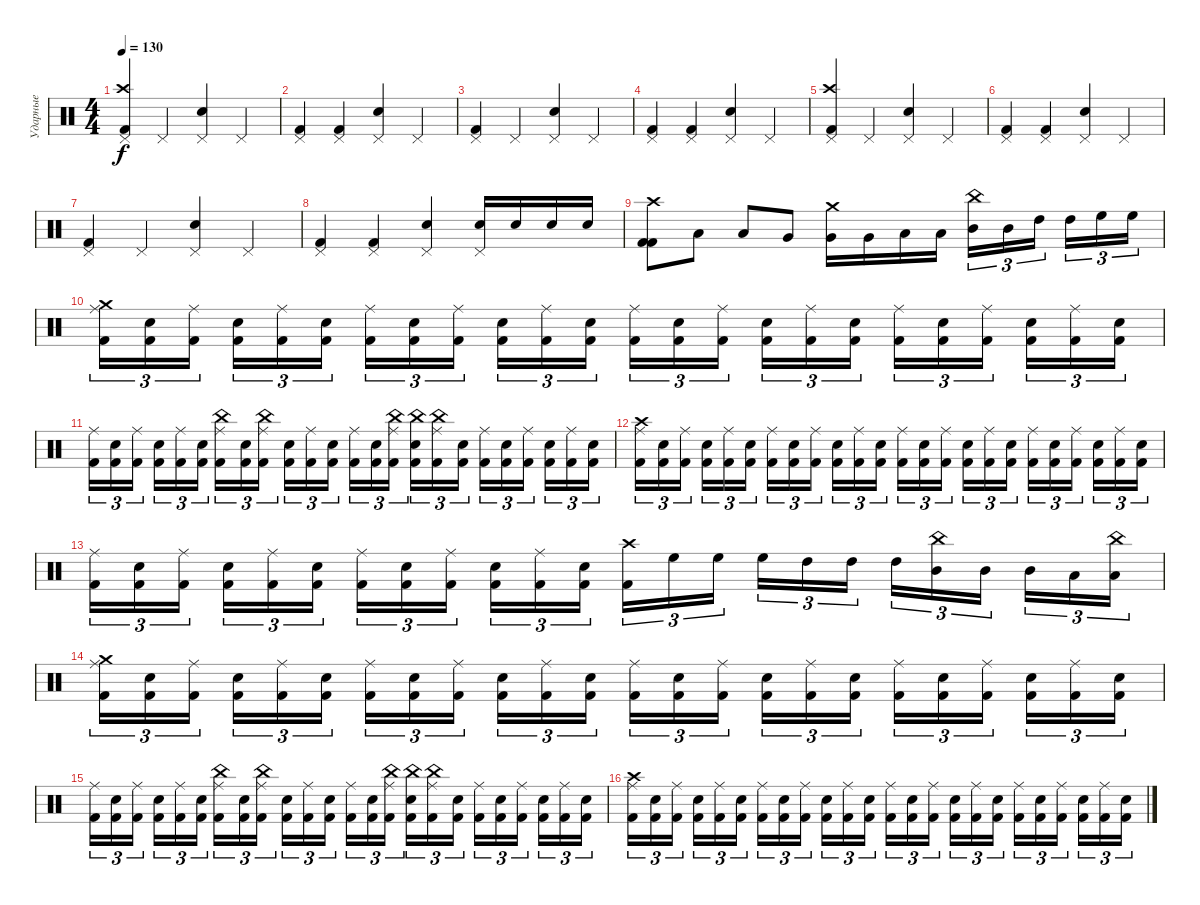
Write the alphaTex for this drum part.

\track ("Ударные" "Ударные") {instrument percussion}
\staff {score}
\articulation defaults
\ts (4 4)
\tempo 130
\clef neutral
\ks c
("Pedal Hi-Hat (hit)" "Crash high (hit)" "Kick (hit) 2").4{dy f} "Pedal Hi-Hat (hit)".4 ("Pedal Hi-Hat (hit)" "Electric Snare (hit)").4 "Pedal Hi-Hat (hit)".4 |
("Pedal Hi-Hat (hit)" "Kick (hit) 2").4 ("Pedal Hi-Hat (hit)" "Kick (hit) 2").4 ("Pedal Hi-Hat (hit)" "Electric Snare (hit)").4 "Pedal Hi-Hat (hit)".4 |
("Pedal Hi-Hat (hit)" "Kick (hit) 2").4 "Pedal Hi-Hat (hit)".4 ("Pedal Hi-Hat (hit)" "Electric Snare (hit)").4 "Pedal Hi-Hat (hit)".4 |
("Pedal Hi-Hat (hit)" "Kick (hit) 2").4 ("Pedal Hi-Hat (hit)" "Kick (hit) 2").4 ("Pedal Hi-Hat (hit)" "Electric Snare (hit)").4 "Pedal Hi-Hat (hit)".4 |
("Pedal Hi-Hat (hit)" "Crash high (hit)" "Kick (hit) 2").4 "Pedal Hi-Hat (hit)".4 ("Pedal Hi-Hat (hit)" "Electric Snare (hit)").4 "Pedal Hi-Hat (hit)".4 |
("Pedal Hi-Hat (hit)" "Kick (hit) 2").4 ("Pedal Hi-Hat (hit)" "Kick (hit) 2").4 ("Pedal Hi-Hat (hit)" "Electric Snare (hit)").4 "Pedal Hi-Hat (hit)".4 |
("Pedal Hi-Hat (hit)" "Kick (hit) 2").4 "Pedal Hi-Hat (hit)".4 ("Pedal Hi-Hat (hit)" "Electric Snare (hit)").4 "Pedal Hi-Hat (hit)".4 |
("Pedal Hi-Hat (hit)" "Kick (hit) 2").4 ("Pedal Hi-Hat (hit)" "Kick (hit) 2").4 ("Pedal Hi-Hat (hit)" "Electric Snare (hit)").4 ("Pedal Hi-Hat (hit)" "Electric Snare (hit)").16 "Electric Snare (hit)".16 "Electric Snare (hit)".16 "Electric Snare (hit)".16 |
("Crash high (hit)" "Kick (hit) 2" "Kick (hit) 2").8 "Low Floor Tom (hit)".8 "Low Floor Tom (hit)".8 "Very Low Tom (hit)".8 ("Very Low Tom (hit)" "Crash medium (hit)").16 "Very Low Tom (hit)".16 "Low Tom (hit)".16 "Low Tom (hit)".16 ("Mid Tom (hit)" "China (hit)").16{tu (3 2)} "Mid Tom (hit)".16{tu (3 2)} "High Tom (hit)".16{tu (3 2)} "High Tom (hit)".16{tu (3 2)} "High Floor Tom (hit)".16{tu (3 2)} "High Floor Tom (hit)".16{tu (3 2)} |
("Ride (middle)" "Crash medium (hit)" "Kick (hit) 2").16{tu (3 2)} ("Electric Snare (hit)" "Kick (hit) 2").16{tu (3 2)} ("Ride (middle)" "Kick (hit) 2").16{tu (3 2)} ("Electric Snare (hit)" "Kick (hit) 2").16{tu (3 2)} ("Ride (middle)" "Kick (hit) 2").16{tu (3 2)} ("Electric Snare (hit)" "Kick (hit) 2").16{tu (3 2)} ("Ride (middle)" "Kick (hit) 2").16{tu (3 2)} ("Electric Snare (hit)" "Kick (hit) 2").16{tu (3 2)} ("Ride (middle)" "Kick (hit) 2").16{tu (3 2)} ("Electric Snare (hit)" "Kick (hit) 2").16{tu (3 2)} ("Ride (middle)" "Kick (hit) 2").16{tu (3 2)} ("Electric Snare (hit)" "Kick (hit) 2").16{tu (3 2)} ("Ride (middle)" "Kick (hit) 2").16{tu (3 2)} ("Electric Snare (hit)" "Kick (hit) 2").16{tu (3 2)} ("Ride (middle)" "Kick (hit) 2").16{tu (3 2)} ("Electric Snare (hit)" "Kick (hit) 2").16{tu (3 2)} ("Ride (middle)" "Kick (hit) 2").16{tu (3 2)} ("Electric Snare (hit)" "Kick (hit) 2").16{tu (3 2)} ("Ride (middle)" "Kick (hit) 2").16{tu (3 2)} ("Electric Snare (hit)" "Kick (hit) 2").16{tu (3 2)} ("Ride (middle)" "Kick (hit) 2").16{tu (3 2)} ("Electric Snare (hit)" "Kick (hit) 2").16{tu (3 2)} ("Ride (middle)" "Kick (hit) 2").16{tu (3 2)} ("Electric Snare (hit)" "Kick (hit) 2").16{tu (3 2)} |
("Ride (middle)" "Kick (hit) 2").16{tu (3 2)} ("Electric Snare (hit)" "Kick (hit) 2").16{tu (3 2)} ("Ride (middle)" "Kick (hit) 2").16{tu (3 2)} ("Electric Snare (hit)" "Kick (hit) 2").16{tu (3 2)} ("Ride (middle)" "Kick (hit) 2").16{tu (3 2)} ("Electric Snare (hit)" "Kick (hit) 2").16{tu (3 2)} ("Ride (middle)" "China (hit)" "Kick (hit) 2").16{tu (3 2)} ("Electric Snare (hit)" "Kick (hit) 2").16{tu (3 2)} ("Ride (middle)" "China (hit)" "Kick (hit) 2").16{tu (3 2)} ("Electric Snare (hit)" "Kick (hit) 2").16{tu (3 2)} ("Ride (middle)" "Kick (hit) 2").16{tu (3 2)} ("Electric Snare (hit)" "Kick (hit) 2").16{tu (3 2)} ("Ride (middle)" "Kick (hit) 2").16{tu (3 2)} ("Electric Snare (hit)" "Kick (hit) 2").16{tu (3 2)} ("Ride (middle)" "China (hit)" "Kick (hit) 2").16{tu (3 2)} ("China (hit)" "Electric Snare (hit)" "Kick (hit) 2").16{tu (3 2)} ("Ride (middle)" "China (hit)" "Kick (hit) 2").16{tu (3 2)} ("Electric Snare (hit)" "Kick (hit) 2").16{tu (3 2)} ("Ride (middle)" "Kick (hit) 2").16{tu (3 2)} ("Electric Snare (hit)" "Kick (hit) 2").16{tu (3 2)} ("Ride (middle)" "Kick (hit) 2").16{tu (3 2)} ("Electric Snare (hit)" "Kick (hit) 2").16{tu (3 2)} ("Ride (middle)" "Kick (hit) 2").16{tu (3 2)} ("Electric Snare (hit)" "Kick (hit) 2").16{tu (3 2)} |
("Ride (middle)" "Crash high (hit)" "Kick (hit) 2").16{tu (3 2)} ("Electric Snare (hit)" "Kick (hit) 2").16{tu (3 2)} ("Ride (middle)" "Kick (hit) 2").16{tu (3 2)} ("Electric Snare (hit)" "Kick (hit) 2").16{tu (3 2)} ("Ride (middle)" "Kick (hit) 2").16{tu (3 2)} ("Electric Snare (hit)" "Kick (hit) 2").16{tu (3 2)} ("Ride (middle)" "Kick (hit) 2").16{tu (3 2)} ("Electric Snare (hit)" "Kick (hit) 2").16{tu (3 2)} ("Ride (middle)" "Kick (hit) 2").16{tu (3 2)} ("Electric Snare (hit)" "Kick (hit) 2").16{tu (3 2)} ("Ride (middle)" "Kick (hit) 2").16{tu (3 2)} ("Electric Snare (hit)" "Kick (hit) 2").16{tu (3 2)} ("Ride (middle)" "Kick (hit) 2").16{tu (3 2)} ("Electric Snare (hit)" "Kick (hit) 2").16{tu (3 2)} ("Ride (middle)" "Kick (hit) 2").16{tu (3 2)} ("Electric Snare (hit)" "Kick (hit) 2").16{tu (3 2)} ("Ride (middle)" "Kick (hit) 2").16{tu (3 2)} ("Electric Snare (hit)" "Kick (hit) 2").16{tu (3 2)} ("Ride (middle)" "Kick (hit) 2").16{tu (3 2)} ("Electric Snare (hit)" "Kick (hit) 2").16{tu (3 2)} ("Ride (middle)" "Kick (hit) 2").16{tu (3 2)} ("Electric Snare (hit)" "Kick (hit) 2").16{tu (3 2)} ("Ride (middle)" "Kick (hit) 2").16{tu (3 2)} ("Electric Snare (hit)" "Kick (hit) 2").16{tu (3 2)} |
("Ride (middle)" "Kick (hit) 2").16{tu (3 2)} ("Electric Snare (hit)" "Kick (hit) 2").16{tu (3 2)} ("Ride (middle)" "Kick (hit) 2").16{tu (3 2)} ("Electric Snare (hit)" "Kick (hit) 2").16{tu (3 2)} ("Ride (middle)" "Kick (hit) 2").16{tu (3 2)} ("Electric Snare (hit)" "Kick (hit) 2").16{tu (3 2)} ("Ride (middle)" "Kick (hit) 2").16{tu (3 2)} ("Electric Snare (hit)" "Kick (hit) 2").16{tu (3 2)} ("Ride (middle)" "Kick (hit) 2").16{tu (3 2)} ("Electric Snare (hit)" "Kick (hit) 2").16{tu (3 2)} ("Ride (middle)" "Kick (hit) 2").16{tu (3 2)} ("Electric Snare (hit)" "Kick (hit) 2").16{tu (3 2)} ("Crash high (hit)" "Kick (hit) 2").16{tu (3 2)} "High Floor Tom (hit)".16{tu (3 2)} "High Floor Tom (hit)".16{tu (3 2)} "High Floor Tom (hit)".16{tu (3 2)} "High Tom (hit)".16{tu (3 2)} "High Tom (hit)".16{tu (3 2)} "High Tom (hit)".16{tu (3 2)} ("Mid Tom (hit)" "China (hit)").16{tu (3 2)} "Mid Tom (hit)".16{tu (3 2)} "Mid Tom (hit)".16{tu (3 2)} "Low Tom (hit)".16{tu (3 2)} ("Low Tom (hit)" "China (hit)").16{tu (3 2)} |
("Ride (middle)" "Crash medium (hit)" "Kick (hit) 2").16{tu (3 2)} ("Electric Snare (hit)" "Kick (hit) 2").16{tu (3 2)} ("Ride (middle)" "Kick (hit) 2").16{tu (3 2)} ("Electric Snare (hit)" "Kick (hit) 2").16{tu (3 2)} ("Ride (middle)" "Kick (hit) 2").16{tu (3 2)} ("Electric Snare (hit)" "Kick (hit) 2").16{tu (3 2)} ("Ride (middle)" "Kick (hit) 2").16{tu (3 2)} ("Electric Snare (hit)" "Kick (hit) 2").16{tu (3 2)} ("Ride (middle)" "Kick (hit) 2").16{tu (3 2)} ("Electric Snare (hit)" "Kick (hit) 2").16{tu (3 2)} ("Ride (middle)" "Kick (hit) 2").16{tu (3 2)} ("Electric Snare (hit)" "Kick (hit) 2").16{tu (3 2)} ("Ride (middle)" "Kick (hit) 2").16{tu (3 2)} ("Electric Snare (hit)" "Kick (hit) 2").16{tu (3 2)} ("Ride (middle)" "Kick (hit) 2").16{tu (3 2)} ("Electric Snare (hit)" "Kick (hit) 2").16{tu (3 2)} ("Ride (middle)" "Kick (hit) 2").16{tu (3 2)} ("Electric Snare (hit)" "Kick (hit) 2").16{tu (3 2)} ("Ride (middle)" "Kick (hit) 2").16{tu (3 2)} ("Electric Snare (hit)" "Kick (hit) 2").16{tu (3 2)} ("Ride (middle)" "Kick (hit) 2").16{tu (3 2)} ("Electric Snare (hit)" "Kick (hit) 2").16{tu (3 2)} ("Ride (middle)" "Kick (hit) 2").16{tu (3 2)} ("Electric Snare (hit)" "Kick (hit) 2").16{tu (3 2)} |
("Ride (middle)" "Kick (hit) 2").16{tu (3 2)} ("Electric Snare (hit)" "Kick (hit) 2").16{tu (3 2)} ("Ride (middle)" "Kick (hit) 2").16{tu (3 2)} ("Electric Snare (hit)" "Kick (hit) 2").16{tu (3 2)} ("Ride (middle)" "Kick (hit) 2").16{tu (3 2)} ("Electric Snare (hit)" "Kick (hit) 2").16{tu (3 2)} ("Ride (middle)" "China (hit)" "Kick (hit) 2").16{tu (3 2)} ("Electric Snare (hit)" "Kick (hit) 2").16{tu (3 2)} ("Ride (middle)" "China (hit)" "Kick (hit) 2").16{tu (3 2)} ("Electric Snare (hit)" "Kick (hit) 2").16{tu (3 2)} ("Ride (middle)" "Kick (hit) 2").16{tu (3 2)} ("Electric Snare (hit)" "Kick (hit) 2").16{tu (3 2)} ("Ride (middle)" "Kick (hit) 2").16{tu (3 2)} ("Electric Snare (hit)" "Kick (hit) 2").16{tu (3 2)} ("Ride (middle)" "China (hit)" "Kick (hit) 2").16{tu (3 2)} ("China (hit)" "Electric Snare (hit)" "Kick (hit) 2").16{tu (3 2)} ("Ride (middle)" "China (hit)" "Kick (hit) 2").16{tu (3 2)} ("Electric Snare (hit)" "Kick (hit) 2").16{tu (3 2)} ("Ride (middle)" "Kick (hit) 2").16{tu (3 2)} ("Electric Snare (hit)" "Kick (hit) 2").16{tu (3 2)} ("Ride (middle)" "Kick (hit) 2").16{tu (3 2)} ("Electric Snare (hit)" "Kick (hit) 2").16{tu (3 2)} ("Ride (middle)" "Kick (hit) 2").16{tu (3 2)} ("Electric Snare (hit)" "Kick (hit) 2").16{tu (3 2)} |
("Ride (middle)" "Crash high (hit)" "Kick (hit) 2").16{tu (3 2)} ("Electric Snare (hit)" "Kick (hit) 2").16{tu (3 2)} ("Ride (middle)" "Kick (hit) 2").16{tu (3 2)} ("Electric Snare (hit)" "Kick (hit) 2").16{tu (3 2)} ("Ride (middle)" "Kick (hit) 2").16{tu (3 2)} ("Electric Snare (hit)" "Kick (hit) 2").16{tu (3 2)} ("Ride (middle)" "Kick (hit) 2").16{tu (3 2)} ("Electric Snare (hit)" "Kick (hit) 2").16{tu (3 2)} ("Ride (middle)" "Kick (hit) 2").16{tu (3 2)} ("Electric Snare (hit)" "Kick (hit) 2").16{tu (3 2)} ("Ride (middle)" "Kick (hit) 2").16{tu (3 2)} ("Electric Snare (hit)" "Kick (hit) 2").16{tu (3 2)} ("Ride (middle)" "Kick (hit) 2").16{tu (3 2)} ("Electric Snare (hit)" "Kick (hit) 2").16{tu (3 2)} ("Ride (middle)" "Kick (hit) 2").16{tu (3 2)} ("Electric Snare (hit)" "Kick (hit) 2").16{tu (3 2)} ("Ride (middle)" "Kick (hit) 2").16{tu (3 2)} ("Electric Snare (hit)" "Kick (hit) 2").16{tu (3 2)} ("Ride (middle)" "Kick (hit) 2").16{tu (3 2)} ("Electric Snare (hit)" "Kick (hit) 2").16{tu (3 2)} ("Ride (middle)" "Kick (hit) 2").16{tu (3 2)} ("Electric Snare (hit)" "Kick (hit) 2").16{tu (3 2)} ("Ride (middle)" "Kick (hit) 2").16{tu (3 2)} ("Electric Snare (hit)" "Kick (hit) 2").16{tu (3 2)}
